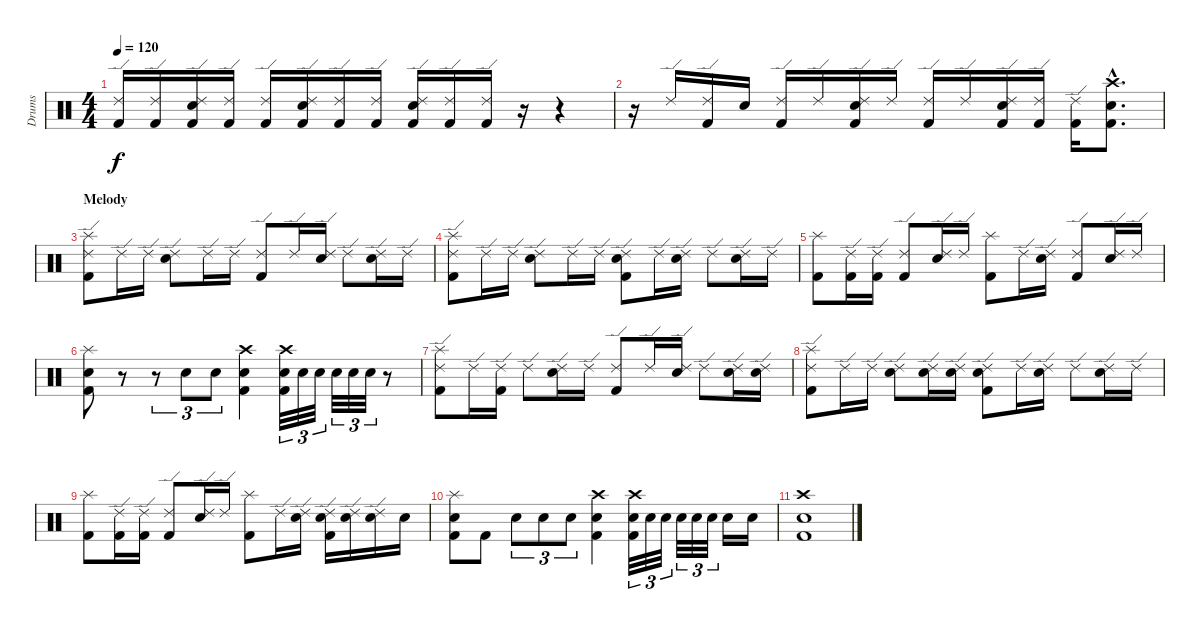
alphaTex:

\track ("Drums" "Drums") {instrument percussion}
\staff {score}
\articulation defaults
\ts (4 4)
\tempo 120
\clef neutral
\ks c
("Ride (edge) 2" "Kick (hit) 2").16{dy f} ("Ride (edge) 2" "Kick (hit) 2").16 ("Ride (edge) 2" "Electric Snare (hit)" "Kick (hit) 2").16 ("Ride (edge) 2" "Kick (hit) 2").16 ("Ride (edge) 2" "Kick (hit) 2").16 ("Ride (edge) 2" "Electric Snare (hit)" "Kick (hit) 2").16 ("Ride (edge) 2" "Kick (hit) 2").16 ("Ride (edge) 2" "Kick (hit) 2").16 ("Ride (edge) 2" "Electric Snare (hit)" "Kick (hit) 2").16 ("Ride (edge) 2" "Kick (hit) 2").16 ("Ride (edge) 2" "Kick (hit) 2").16 r.16 r.4 |
r.16 "Ride (edge) 2".16 ("Ride (edge) 2" "Kick (hit) 2").16 "Electric Snare (hit)".16 ("Ride (edge) 2" "Kick (hit) 2").16 "Ride (edge) 2".16 ("Ride (edge) 2" "Electric Snare (hit)" "Kick (hit) 2").16 "Ride (edge) 2".16 ("Ride (edge) 2" "Kick (hit) 2").16 "Ride (edge) 2".16 ("Ride (edge) 2" "Electric Snare (hit)" "Kick (hit) 2").16 ("Ride (edge) 2" "Kick (hit) 2").16 ("Ride (edge) 2" "Kick (hit) 2").16 ("Crash high (hit)"{hac} "Electric Snare (hit)"{hac} "Kick (hit) 2"{hac}).8{d} |
\section ("" "Melody")
("Ride (edge) 2" "Splash (hit)" "Kick (hit) 2").8 "Ride (edge) 2".16 "Ride (edge) 2".16 ("Ride (edge) 2" "Electric Snare (hit)").8 "Ride (edge) 2".16 "Ride (edge) 2".16 ("Ride (edge) 2" "Kick (hit) 2").8 "Ride (edge) 2".16 ("Ride (edge) 2" "Electric Snare (hit)").16 "Ride (edge) 2".8 ("Ride (edge) 2" "Electric Snare (hit)").16 "Ride (edge) 2".16 |
("Ride (edge) 2" "Splash (hit)" "Kick (hit) 2").8 "Ride (edge) 2".16 "Ride (edge) 2".16 ("Ride (edge) 2" "Electric Snare (hit)").8 "Ride (edge) 2".16 "Ride (edge) 2".16 ("Ride (edge) 2" "Electric Snare (hit)" "Kick (hit) 2").8 "Ride (edge) 2".16 ("Ride (edge) 2" "Electric Snare (hit)").16 "Ride (edge) 2".8 ("Ride (edge) 2" "Electric Snare (hit)").16 "Ride (edge) 2".16 |
("Splash (hit)" "Kick (hit) 2").8 ("Ride (edge) 2" "Kick (hit) 2").16 ("Ride (edge) 2" "Kick (hit) 2").16 ("Ride (edge) 2" "Kick (hit) 2").8 ("Ride (edge) 2" "Electric Snare (hit)").16 "Ride (edge) 2".16 ("Splash (hit)" "Kick (hit) 2").8 "Ride (edge) 2".16 ("Ride (edge) 2" "Electric Snare (hit)").16 ("Ride (edge) 2" "Kick (hit) 2").8 ("Ride (edge) 2" "Electric Snare (hit)").16 "Ride (edge) 2".16 |
("Splash (hit)" "Electric Snare (hit)" "Kick (hit) 2").8 r.8 r.8{tu (3 2)} "Electric Snare (hit)".8{tu (3 2)} "Electric Snare (hit)".8{tu (3 2)} ("Crash high (hit)" "Electric Snare (hit)" "Kick (hit) 2").4 ("Crash high (hit)" "Electric Snare (hit)" "Kick (hit) 2").32{tu (3 2)} "Electric Snare (hit)".32{tu (3 2)} "Electric Snare (hit)".32{tu (3 2)} "Electric Snare (hit)".32{tu (3 2)} "Electric Snare (hit)".32{tu (3 2)} "Electric Snare (hit)".32{tu (3 2)} r.8 |
("Ride (edge) 2" "Splash (hit)" "Kick (hit) 2").8 "Ride (edge) 2".16 ("Ride (edge) 2" "Kick (hit) 2").16 "Ride (edge) 2".8 ("Ride (edge) 2" "Electric Snare (hit)").16 "Ride (edge) 2".16 ("Ride (edge) 2" "Kick (hit) 2").8 "Ride (edge) 2".16 ("Ride (edge) 2" "Electric Snare (hit)").16 "Ride (edge) 2".8 ("Ride (edge) 2" "Electric Snare (hit)").16 ("Ride (edge) 2" "Electric Snare (hit)").16 |
("Ride (edge) 2" "Splash (hit)" "Kick (hit) 2").8 "Ride (edge) 2".16 "Ride (edge) 2".16 ("Ride (edge) 2" "Electric Snare (hit)").8 ("Ride (edge) 2" "Electric Snare (hit)").16 ("Ride (edge) 2" "Electric Snare (hit)").16 ("Ride (edge) 2" "Electric Snare (hit)" "Kick (hit) 2").8 "Ride (edge) 2".16 ("Ride (edge) 2" "Electric Snare (hit)").16 "Ride (edge) 2".8 ("Ride (edge) 2" "Electric Snare (hit)").16 "Ride (edge) 2".16 |
("Splash (hit)" "Kick (hit) 2").8 ("Ride (edge) 2" "Kick (hit) 2").16 ("Ride (edge) 2" "Kick (hit) 2").16 ("Ride (edge) 2" "Kick (hit) 2").8 ("Ride (edge) 2" "Electric Snare (hit)").16 "Ride (edge) 2".16 ("Splash (hit)" "Kick (hit) 2").8 "Ride (edge) 2".16 ("Ride (edge) 2" "Electric Snare (hit)").16 ("Ride (edge) 2" "Electric Snare (hit)" "Kick (hit) 2").16 ("Ride (edge) 2" "Electric Snare (hit)").16 ("Ride (edge) 2" "Electric Snare (hit)").16 "Electric Snare (hit)".16 |
("Splash (hit)" "Electric Snare (hit)" "Kick (hit) 2").8 "Kick (hit) 2".8 "Electric Snare (hit)".8{tu (3 2)} "Electric Snare (hit)".8{tu (3 2)} "Electric Snare (hit)".8{tu (3 2)} ("Crash high (hit)" "Electric Snare (hit)" "Kick (hit) 2").4 ("Crash high (hit)" "Electric Snare (hit)" "Kick (hit) 2").32{tu (3 2)} "Electric Snare (hit)".32{tu (3 2)} "Electric Snare (hit)".32{tu (3 2)} "Electric Snare (hit)".32{tu (3 2)} "Electric Snare (hit)".32{tu (3 2)} "Electric Snare (hit)".32{tu (3 2)} "Electric Snare (hit)".16 "Electric Snare (hit)".16 |
("Crash high (hit)" "Electric Snare (hit)" "Kick (hit) 2").1
